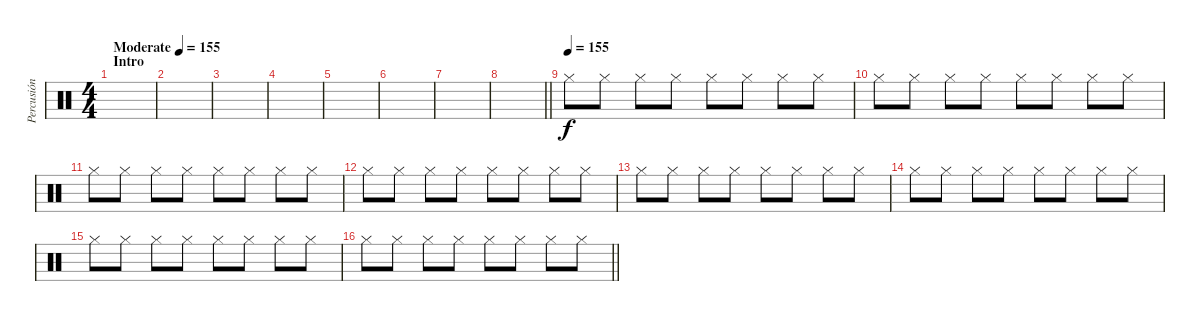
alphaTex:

\track ("Percusión" "Percusión") {instrument percussion}
\staff {score}
\articulation defaults
\ts (4 4)
\section ("" "Intro")
\tempo (155 "Moderate")
\tempo 162
\tempo (155 "Moderate")
\clef neutral
\ks c
|
|
|
|
|
|
|
\barLineRight lightlight
|
\tempo (155)
"Hi-Hat (closed)".8 "Hi-Hat (closed)".8 "Hi-Hat (closed)".8 "Hi-Hat (closed)".8 "Hi-Hat (closed)".8 "Hi-Hat (closed)".8 "Hi-Hat (closed)".8 "Hi-Hat (closed)".8 |
"Hi-Hat (closed)".8 "Hi-Hat (closed)".8 "Hi-Hat (closed)".8 "Hi-Hat (closed)".8 "Hi-Hat (closed)".8 "Hi-Hat (closed)".8 "Hi-Hat (closed)".8 "Hi-Hat (closed)".8 |
"Hi-Hat (closed)".8 "Hi-Hat (closed)".8 "Hi-Hat (closed)".8 "Hi-Hat (closed)".8 "Hi-Hat (closed)".8 "Hi-Hat (closed)".8 "Hi-Hat (closed)".8 "Hi-Hat (closed)".8 |
"Hi-Hat (closed)".8 "Hi-Hat (closed)".8 "Hi-Hat (closed)".8 "Hi-Hat (closed)".8 "Hi-Hat (closed)".8 "Hi-Hat (closed)".8 "Hi-Hat (closed)".8 "Hi-Hat (closed)".8 |
"Hi-Hat (closed)".8 "Hi-Hat (closed)".8 "Hi-Hat (closed)".8 "Hi-Hat (closed)".8 "Hi-Hat (closed)".8 "Hi-Hat (closed)".8 "Hi-Hat (closed)".8 "Hi-Hat (closed)".8 |
"Hi-Hat (closed)".8 "Hi-Hat (closed)".8 "Hi-Hat (closed)".8 "Hi-Hat (closed)".8 "Hi-Hat (closed)".8 "Hi-Hat (closed)".8 "Hi-Hat (closed)".8 "Hi-Hat (closed)".8 |
"Hi-Hat (closed)".8 "Hi-Hat (closed)".8 "Hi-Hat (closed)".8 "Hi-Hat (closed)".8 "Hi-Hat (closed)".8 "Hi-Hat (closed)".8 "Hi-Hat (closed)".8 "Hi-Hat (closed)".8 |
\barLineRight lightlight "Hi-Hat (closed)".8 "Hi-Hat (closed)".8 "Hi-Hat (closed)".8 "Hi-Hat (closed)".8 "Hi-Hat (closed)".8 "Hi-Hat (closed)".8 "Hi-Hat (closed)".8 "Hi-Hat (closed)".8
